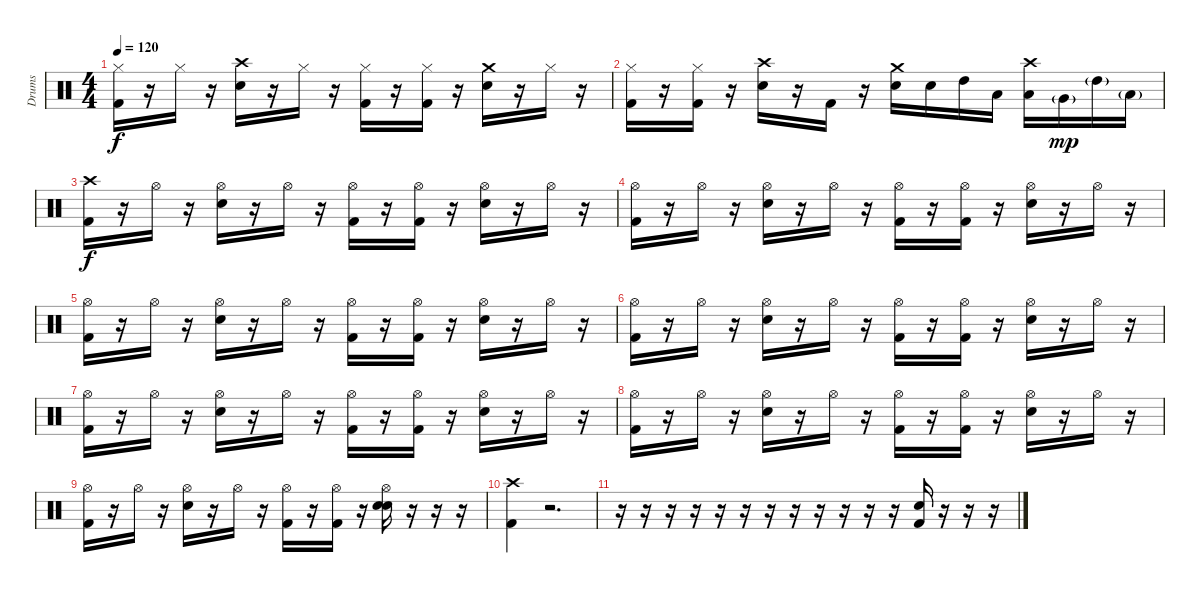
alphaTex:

\track ("Drums" "Drums") {instrument percussion}
\staff {score}
\articulation defaults
\ts (4 4)
\tempo 120
\clef neutral
\ks c
("Kick (hit) 2" "Hi-Hat (closed)").16{dy f} r.16 "Hi-Hat (closed)".16 r.16 ("Electric Snare (hit)" "Crash high (hit)").16 r.16 "Hi-Hat (closed)".16 r.16 ("Kick (hit) 2" "Hi-Hat (closed)").16 r.16 ("Kick (hit) 2" "Hi-Hat (closed)").16 r.16 ("Electric Snare (hit)" "Crash medium (hit)").16 r.16 "Hi-Hat (closed)".16 r.16 |
("Kick (hit) 2" "Hi-Hat (closed)").16 r.16 ("Kick (hit) 2" "Hi-Hat (closed)").16 r.16 ("Electric Snare (hit)" "Crash high (hit)").16 r.16 "Kick (hit) 2".16 r.16 ("Electric Snare (hit)" "Crash medium (hit)").16 "Electric Snare (hit)".16 "High Tom (hit)".16 "Low Tom (hit)".16 ("Low Tom (hit)" "Crash high (hit)").16 "Very Low Tom (hit)"{g}.16{dy mp} "High Tom (hit)"{g}.16 "Low Tom (hit)"{g}.16 |
("Kick (hit) 2" "Crash high (hit)").16{dy f} r.16 "Hi-Hat (open)".16 r.16 ("Electric Snare (hit)" "Hi-Hat (open)").16 r.16 "Hi-Hat (open)".16 r.16 ("Kick (hit) 2" "Hi-Hat (open)").16 r.16 ("Kick (hit) 2" "Hi-Hat (open)").16 r.16 ("Electric Snare (hit)" "Hi-Hat (open)").16 r.16 "Hi-Hat (open)".16 r.16 |
("Kick (hit) 2" "Hi-Hat (open)").16 r.16 "Hi-Hat (open)".16 r.16 ("Electric Snare (hit)" "Hi-Hat (open)").16 r.16 "Hi-Hat (open)".16 r.16 ("Kick (hit) 2" "Hi-Hat (open)").16 r.16 ("Kick (hit) 2" "Hi-Hat (open)").16 r.16 ("Electric Snare (hit)" "Hi-Hat (open)").16 r.16 "Hi-Hat (open)".16 r.16 |
("Kick (hit) 2" "Hi-Hat (open)").16 r.16 "Hi-Hat (open)".16 r.16 ("Electric Snare (hit)" "Hi-Hat (open)").16 r.16 "Hi-Hat (open)".16 r.16 ("Kick (hit) 2" "Hi-Hat (open)").16 r.16 ("Kick (hit) 2" "Hi-Hat (open)").16 r.16 ("Electric Snare (hit)" "Hi-Hat (open)").16 r.16 "Hi-Hat (open)".16 r.16 |
("Kick (hit) 2" "Hi-Hat (open)").16 r.16 "Hi-Hat (open)".16 r.16 ("Electric Snare (hit)" "Hi-Hat (open)").16 r.16 "Hi-Hat (open)".16 r.16 ("Kick (hit) 2" "Hi-Hat (open)").16 r.16 ("Kick (hit) 2" "Hi-Hat (open)").16 r.16 ("Electric Snare (hit)" "Hi-Hat (open)").16 r.16 "Hi-Hat (open)".16 r.16 |
("Kick (hit) 2" "Hi-Hat (open)").16 r.16 "Hi-Hat (open)".16 r.16 ("Electric Snare (hit)" "Hi-Hat (open)").16 r.16 "Hi-Hat (open)".16 r.16 ("Kick (hit) 2" "Hi-Hat (open)").16 r.16 ("Kick (hit) 2" "Hi-Hat (open)").16 r.16 ("Electric Snare (hit)" "Hi-Hat (open)").16 r.16 "Hi-Hat (open)".16 r.16 |
("Kick (hit) 2" "Hi-Hat (open)").16 r.16 "Hi-Hat (open)".16 r.16 ("Electric Snare (hit)" "Hi-Hat (open)").16 r.16 "Hi-Hat (open)".16 r.16 ("Kick (hit) 2" "Hi-Hat (open)").16 r.16 ("Kick (hit) 2" "Hi-Hat (open)").16 r.16 ("Electric Snare (hit)" "Hi-Hat (open)").16 r.16 "Hi-Hat (open)".16 r.16 |
("Kick (hit) 2" "Hi-Hat (open)").16 r.16 "Hi-Hat (open)".16 r.16 ("Electric Snare (hit)" "Hi-Hat (open)").16 r.16 "Hi-Hat (open)".16 r.16 ("Kick (hit) 2" "Hi-Hat (open)").16 r.16 ("Kick (hit) 2" "Hi-Hat (open)").16 r.16 ("Electric Snare (hit)" "Electric Snare (hit)" "Hi-Hat (open)").16 r.16 r.16 r.16 |
("Kick (hit) 2" "Crash high (hit)").4 r.2{d} |
r.16 r.16 r.16 r.16 r.16 r.16 r.16 r.16 r.16 r.16 r.16 r.16 ("Kick (hit) 2" "Electric Snare (hit)").16 r.16 r.16 r.16
